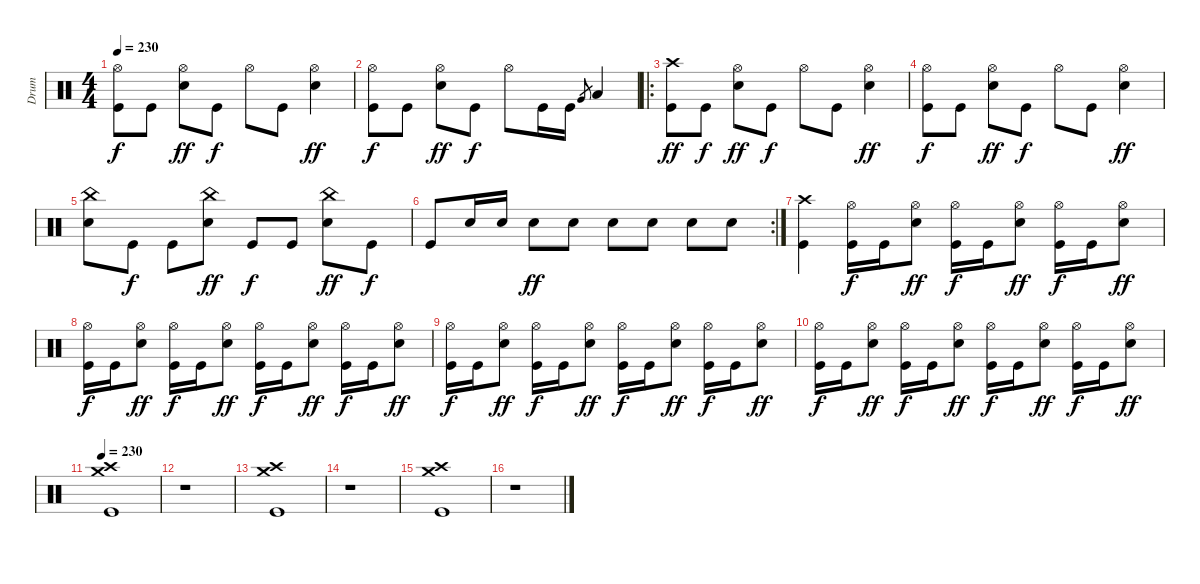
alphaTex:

\track ("Drum" "Drum") {instrument percussion}
\staff {score}
\articulation defaults
\ts (4 4)
\tempo 230
\clef neutral
\ks c
("Kick (hit)" "Hi-Hat (open)").8{dy f} "Kick (hit)".8 ("Electric Snare (hit)" "Hi-Hat (open)").8{dy ff} "Kick (hit)".8{dy f} "Hi-Hat (open)".8 "Kick (hit)".8 ("Electric Snare (hit)" "Hi-Hat (open)").4{dy ff} |
("Kick (hit)" "Hi-Hat (open)").8{dy f} "Kick (hit)".8 ("Electric Snare (hit)" "Hi-Hat (open)").8{dy ff} "Kick (hit)".8{dy f} "Hi-Hat (open)".8 "Kick (hit)".16 "Kick (hit)".16 "Very Low Tom (hit)".8{gr} "Low Floor Tom (hit)".4 |
\ro
("Kick (hit)" "Crash high (hit)").8{dy ff} "Kick (hit)".8{dy f} ("Electric Snare (hit)" "Hi-Hat (open)").8{dy ff} "Kick (hit)".8{dy f} "Hi-Hat (open)".8 "Kick (hit)".8 ("Electric Snare (hit)" "Hi-Hat (open)").4{dy ff} |
("Kick (hit)" "Hi-Hat (open)").8{dy f} "Kick (hit)".8 ("Electric Snare (hit)" "Hi-Hat (open)").8{dy ff} "Kick (hit)".8{dy f} "Hi-Hat (open)".8 "Kick (hit)".8 ("Electric Snare (hit)" "Hi-Hat (open)").4{dy ff} |
("Electric Snare (hit)" "China (hit)").8 "Kick (hit)".8{dy f} "Kick (hit)".8 ("Electric Snare (hit)" "China (hit)").8{dy ff} "Kick (hit)".8{dy f} "Kick (hit)".8 ("Electric Snare (hit)" "China (hit)").8{dy ff} "Kick (hit)".8{dy f} |
\rc 2 "Kick (hit)".8 "Electric Snare (hit)".16 "Electric Snare (hit)".16 "Electric Snare (hit)".8{dy ff} "Electric Snare (hit)".8 "Electric Snare (hit)".8 "Electric Snare (hit)".8 "Electric Snare (hit)".8 "Electric Snare (hit)".8
|
("Kick (hit)" "Crash high (hit)").4 ("Kick (hit)" "Hi-Hat (open)").16{dy f} "Kick (hit)".16 ("Electric Snare (hit)" "Hi-Hat (open)").8{dy ff} ("Kick (hit)" "Hi-Hat (open)").16{dy f} "Kick (hit)".16 ("Electric Snare (hit)" "Hi-Hat (open)").8{dy ff} ("Kick (hit)" "Hi-Hat (open)").16{dy f} "Kick (hit)".16 ("Electric Snare (hit)" "Hi-Hat (open)").8{dy ff} |
("Kick (hit)" "Hi-Hat (open)").16{dy f} "Kick (hit)".16 ("Electric Snare (hit)" "Hi-Hat (open)").8{dy ff} ("Kick (hit)" "Hi-Hat (open)").16{dy f} "Kick (hit)".16 ("Electric Snare (hit)" "Hi-Hat (open)").8{dy ff} ("Kick (hit)" "Hi-Hat (open)").16{dy f} "Kick (hit)".16 ("Electric Snare (hit)" "Hi-Hat (open)").8{dy ff} ("Kick (hit)" "Hi-Hat (open)").16{dy f} "Kick (hit)".16 ("Electric Snare (hit)" "Hi-Hat (open)").8{dy ff} |
("Kick (hit)" "Hi-Hat (open)").16{dy f} "Kick (hit)".16 ("Electric Snare (hit)" "Hi-Hat (open)").8{dy ff} ("Kick (hit)" "Hi-Hat (open)").16{dy f} "Kick (hit)".16 ("Electric Snare (hit)" "Hi-Hat (open)").8{dy ff} ("Kick (hit)" "Hi-Hat (open)").16{dy f} "Kick (hit)".16 ("Electric Snare (hit)" "Hi-Hat (open)").8{dy ff} ("Kick (hit)" "Hi-Hat (open)").16{dy f} "Kick (hit)".16 ("Electric Snare (hit)" "Hi-Hat (open)").8{dy ff} |
("Kick (hit)" "Hi-Hat (open)").16{dy f} "Kick (hit)".16 ("Electric Snare (hit)" "Hi-Hat (open)").8{dy ff} ("Kick (hit)" "Hi-Hat (open)").16{dy f} "Kick (hit)".16 ("Electric Snare (hit)" "Hi-Hat (open)").8{dy ff} ("Kick (hit)" "Hi-Hat (open)").16{dy f} "Kick (hit)".16 ("Electric Snare (hit)" "Hi-Hat (open)").8{dy ff} ("Kick (hit)" "Hi-Hat (open)").16{dy f} "Kick (hit)".16 ("Electric Snare (hit)" "Hi-Hat (open)").8{dy ff} |
\tempo 230
("Kick (hit)" "Crash high (hit)" "Crash medium (hit)").1 |
r.1 |
("Kick (hit)" "Crash high (hit)" "Crash medium (hit)").1 |
r.1 |
("Kick (hit)" "Crash high (hit)" "Crash medium (hit)").1 |
r.1
